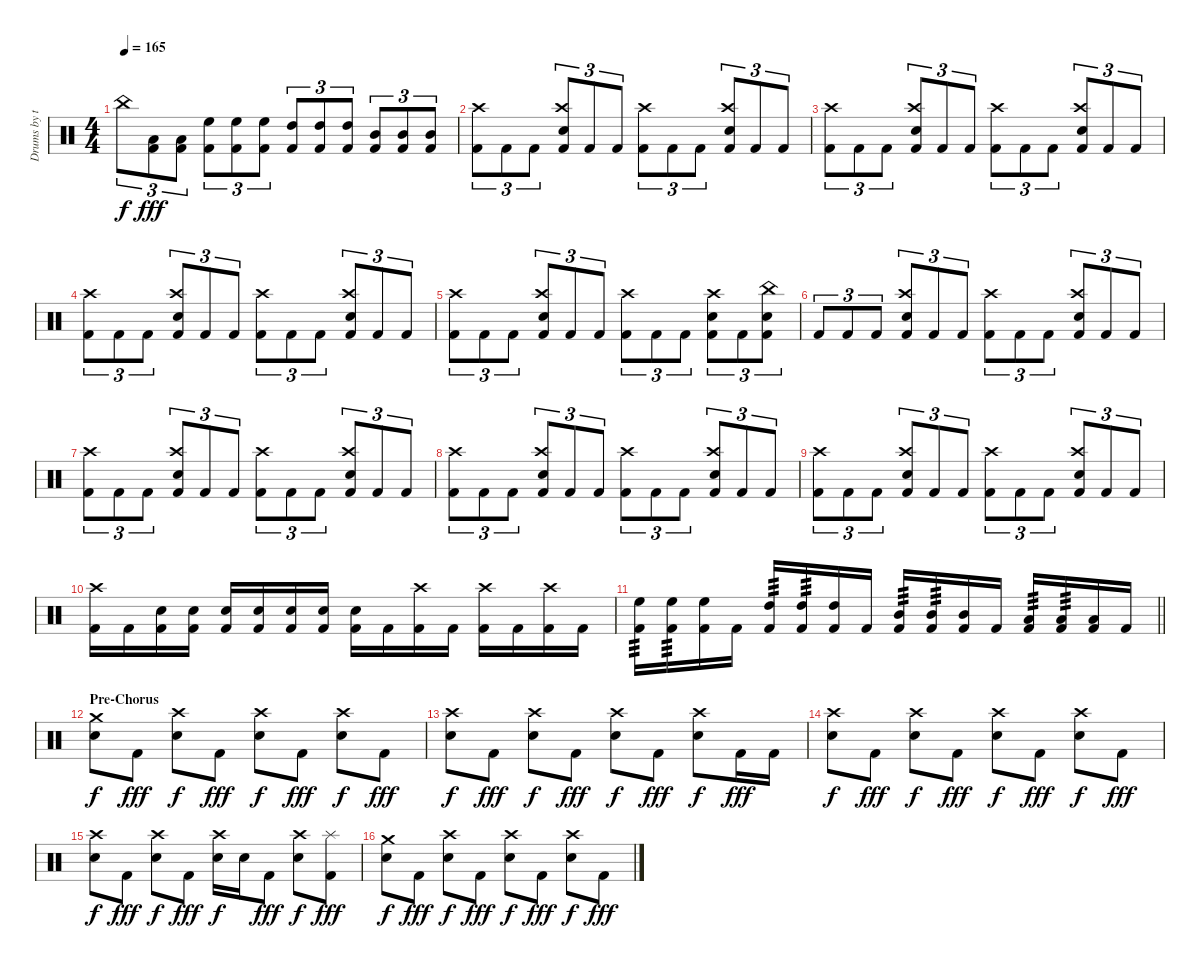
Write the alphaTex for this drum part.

\track ("Drums by terryn0" "Drums by t") {instrument percussion}
\staff {score}
\articulation defaults
\ts (4 4)
\tempo 165
\clef neutral
\ks c "China (hit)".8{tu (3 2) dy f}
("Low Tom (hit)" "Kick (hit) 2").8{tu (3 2) dy fff} ("Low Tom (hit)" "Kick (hit) 2").8{tu (3 2)} ("High Floor Tom (hit)" "Kick (hit) 2").8{tu (3 2)} ("High Floor Tom (hit)" "Kick (hit) 2").8{tu (3 2)} ("High Floor Tom (hit)" "Kick (hit) 2").8{tu (3 2)} ("High Tom (hit)" "Kick (hit) 2").8{tu (3 2)} ("High Tom (hit)" "Kick (hit) 2").8{tu (3 2)} ("High Tom (hit)" "Kick (hit) 2").8{tu (3 2)} ("Mid Tom (hit)" "Kick (hit) 2").8{tu (3 2)} ("Mid Tom (hit)" "Kick (hit) 2").8{tu (3 2)} ("Mid Tom (hit)" "Kick (hit) 2").8{tu (3 2)} |
("Crash high (hit)" "Kick (hit) 2").8{tu (3 2)} "Kick (hit) 2".8{tu (3 2)} "Kick (hit) 2".8{tu (3 2)} ("Crash high (hit)" "Electric Snare (hit)" "Kick (hit) 2").8{tu (3 2)} "Kick (hit) 2".8{tu (3 2)} "Kick (hit) 2".8{tu (3 2)} ("Crash high (hit)" "Kick (hit) 2").8{tu (3 2)} "Kick (hit) 2".8{tu (3 2)} "Kick (hit) 2".8{tu (3 2)} ("Crash high (hit)" "Electric Snare (hit)" "Kick (hit) 2").8{tu (3 2)} "Kick (hit) 2".8{tu (3 2)} "Kick (hit) 2".8{tu (3 2)} |
("Crash high (hit)" "Kick (hit) 2").8{tu (3 2)} "Kick (hit) 2".8{tu (3 2)} "Kick (hit) 2".8{tu (3 2)} ("Crash high (hit)" "Electric Snare (hit)" "Kick (hit) 2").8{tu (3 2)} "Kick (hit) 2".8{tu (3 2)} "Kick (hit) 2".8{tu (3 2)} ("Crash high (hit)" "Kick (hit) 2").8{tu (3 2)} "Kick (hit) 2".8{tu (3 2)} "Kick (hit) 2".8{tu (3 2)} ("Crash high (hit)" "Electric Snare (hit)" "Kick (hit) 2").8{tu (3 2)} "Kick (hit) 2".8{tu (3 2)} "Kick (hit) 2".8{tu (3 2)} |
("Crash high (hit)" "Kick (hit) 2").8{tu (3 2)} "Kick (hit) 2".8{tu (3 2)} "Kick (hit) 2".8{tu (3 2)} ("Crash high (hit)" "Electric Snare (hit)" "Kick (hit) 2").8{tu (3 2)} "Kick (hit) 2".8{tu (3 2)} "Kick (hit) 2".8{tu (3 2)} ("Crash high (hit)" "Kick (hit) 2").8{tu (3 2)} "Kick (hit) 2".8{tu (3 2)} "Kick (hit) 2".8{tu (3 2)} ("Crash high (hit)" "Electric Snare (hit)" "Kick (hit) 2").8{tu (3 2)} "Kick (hit) 2".8{tu (3 2)} "Kick (hit) 2".8{tu (3 2)} |
("Crash high (hit)" "Kick (hit) 2").8{tu (3 2)} "Kick (hit) 2".8{tu (3 2)} "Kick (hit) 2".8{tu (3 2)} ("Crash high (hit)" "Electric Snare (hit)" "Kick (hit) 2").8{tu (3 2)} "Kick (hit) 2".8{tu (3 2)} "Kick (hit) 2".8{tu (3 2)} ("Crash high (hit)" "Kick (hit) 2").8{tu (3 2)} "Kick (hit) 2".8{tu (3 2)} "Kick (hit) 2".8{tu (3 2)} ("Crash high (hit)" "Electric Snare (hit)" "Kick (hit) 2").8{tu (3 2)} "Kick (hit) 2".8{tu (3 2)} ("China (hit)" "Electric Snare (hit)" "Kick (hit) 2").8{tu (3 2)} |
"Kick (hit) 2".8{tu (3 2)} "Kick (hit) 2".8{tu (3 2)} "Kick (hit) 2".8{tu (3 2)} ("Crash high (hit)" "Electric Snare (hit)" "Kick (hit) 2").8{tu (3 2)} "Kick (hit) 2".8{tu (3 2)} "Kick (hit) 2".8{tu (3 2)} ("Crash high (hit)" "Kick (hit) 2").8{tu (3 2)} "Kick (hit) 2".8{tu (3 2)} "Kick (hit) 2".8{tu (3 2)} ("Crash high (hit)" "Electric Snare (hit)" "Kick (hit) 2").8{tu (3 2)} "Kick (hit) 2".8{tu (3 2)} "Kick (hit) 2".8{tu (3 2)} |
("Crash high (hit)" "Kick (hit) 2").8{tu (3 2)} "Kick (hit) 2".8{tu (3 2)} "Kick (hit) 2".8{tu (3 2)} ("Crash high (hit)" "Electric Snare (hit)" "Kick (hit) 2").8{tu (3 2)} "Kick (hit) 2".8{tu (3 2)} "Kick (hit) 2".8{tu (3 2)} ("Crash high (hit)" "Kick (hit) 2").8{tu (3 2)} "Kick (hit) 2".8{tu (3 2)} "Kick (hit) 2".8{tu (3 2)} ("Crash high (hit)" "Electric Snare (hit)" "Kick (hit) 2").8{tu (3 2)} "Kick (hit) 2".8{tu (3 2)} "Kick (hit) 2".8{tu (3 2)} |
("Crash high (hit)" "Kick (hit) 2").8{tu (3 2)} "Kick (hit) 2".8{tu (3 2)} "Kick (hit) 2".8{tu (3 2)} ("Crash high (hit)" "Electric Snare (hit)" "Kick (hit) 2").8{tu (3 2)} "Kick (hit) 2".8{tu (3 2)} "Kick (hit) 2".8{tu (3 2)} ("Crash high (hit)" "Kick (hit) 2").8{tu (3 2)} "Kick (hit) 2".8{tu (3 2)} "Kick (hit) 2".8{tu (3 2)} ("Crash high (hit)" "Electric Snare (hit)" "Kick (hit) 2").8{tu (3 2)} "Kick (hit) 2".8{tu (3 2)} "Kick (hit) 2".8{tu (3 2)} |
("Crash high (hit)" "Kick (hit) 2").8{tu (3 2)} "Kick (hit) 2".8{tu (3 2)} "Kick (hit) 2".8{tu (3 2)} ("Crash high (hit)" "Electric Snare (hit)" "Kick (hit) 2").8{tu (3 2)} "Kick (hit) 2".8{tu (3 2)} "Kick (hit) 2".8{tu (3 2)} ("Crash high (hit)" "Kick (hit) 2").8{tu (3 2)} "Kick (hit) 2".8{tu (3 2)} "Kick (hit) 2".8{tu (3 2)} ("Crash high (hit)" "Electric Snare (hit)" "Kick (hit) 2").8{tu (3 2)} "Kick (hit) 2".8{tu (3 2)} "Kick (hit) 2".8{tu (3 2)} |
("Crash high (hit)" "Kick (hit) 2").16 "Kick (hit) 2".16 ("Electric Snare (hit)" "Kick (hit) 2").16 ("Electric Snare (hit)" "Kick (hit) 2").16 ("Electric Snare (hit)" "Kick (hit) 2").16 ("Electric Snare (hit)" "Kick (hit) 2").16 ("Electric Snare (hit)" "Kick (hit) 2").16 ("Electric Snare (hit)" "Kick (hit) 2").16 ("Electric Snare (hit)" "Kick (hit) 2").16 "Kick (hit) 2".16 ("Crash high (hit)" "Kick (hit) 2").16 "Kick (hit) 2".16 ("Crash high (hit)" "Kick (hit) 2").16 "Kick (hit) 2".16 ("Crash high (hit)" "Kick (hit) 2").16 "Kick (hit) 2".16 |
\barLineRight lightlight
("High Floor Tom (hit)" "Kick (hit) 2").16{tp 3} ("High Floor Tom (hit)" "Kick (hit) 2").16{tp 3} ("High Floor Tom (hit)" "Kick (hit) 2").16 "Kick (hit) 2".16 ("High Tom (hit)" "Kick (hit) 2").16{tp 3} ("High Tom (hit)" "Kick (hit) 2").16{tp 3} ("High Tom (hit)" "Kick (hit) 2").16 "Kick (hit) 2".16 ("Mid Tom (hit)" "Kick (hit) 2").16{tp 3} ("Mid Tom (hit)" "Kick (hit) 2").16{tp 3} ("Mid Tom (hit)" "Kick (hit) 2").16 "Kick (hit) 2".16 ("Low Tom (hit)" "Kick (hit) 2").16{tp 3} ("Low Tom (hit)" "Kick (hit) 2").16{tp 3} ("Low Tom (hit)" "Kick (hit) 2").16 "Kick (hit) 2".16 |
\section ("" "Pre-Chorus")
("Crash medium (hit)" "Electric Snare (hit)").8{dy f} "Kick (hit) 2".8{dy fff} ("Crash high (hit)" "Electric Snare (hit)").8{dy f} "Kick (hit) 2".8{dy fff} ("Crash high (hit)" "Electric Snare (hit)").8{dy f} "Kick (hit) 2".8{dy fff} ("Crash high (hit)" "Electric Snare (hit)").8{dy f} "Kick (hit) 2".8{dy fff} |
("Crash high (hit)" "Electric Snare (hit)").8{dy f} "Kick (hit) 2".8{dy fff} ("Crash high (hit)" "Electric Snare (hit)").8{dy f} "Kick (hit) 2".8{dy fff} ("Crash high (hit)" "Electric Snare (hit)").8{dy f} "Kick (hit) 2".8{dy fff} ("Crash high (hit)" "Electric Snare (hit)").8{dy f} "Kick (hit) 2".16{dy fff} "Kick (hit) 2".16 |
("Crash high (hit)" "Electric Snare (hit)").8{dy f} "Kick (hit) 2".8{dy fff} ("Crash high (hit)" "Electric Snare (hit)").8{dy f} "Kick (hit) 2".8{dy fff} ("Crash high (hit)" "Electric Snare (hit)").8{dy f} "Kick (hit) 2".8{dy fff} ("Crash high (hit)" "Electric Snare (hit)").8{dy f} "Kick (hit) 2".8{dy fff} |
("Crash high (hit)" "Electric Snare (hit)").8{dy f} "Kick (hit) 2".8{dy fff} ("Crash high (hit)" "Electric Snare (hit)").8{dy f} "Kick (hit) 2".8{dy fff} ("Crash high (hit)" "Electric Snare (hit)").16{dy f} "Electric Snare (hit)".16 "Kick (hit) 2".8{dy fff} ("Crash high (hit)" "Electric Snare (hit)").8{dy f} ("Splash (hit)" "Kick (hit) 2").8{dy fff} |
("Crash medium (hit)" "Electric Snare (hit)").8{dy f} "Kick (hit) 2".8{dy fff} ("Crash high (hit)" "Electric Snare (hit)").8{dy f} "Kick (hit) 2".8{dy fff} ("Crash high (hit)" "Electric Snare (hit)").8{dy f} "Kick (hit) 2".8{dy fff} ("Crash high (hit)" "Electric Snare (hit)").8{dy f} "Kick (hit) 2".8{dy fff}
